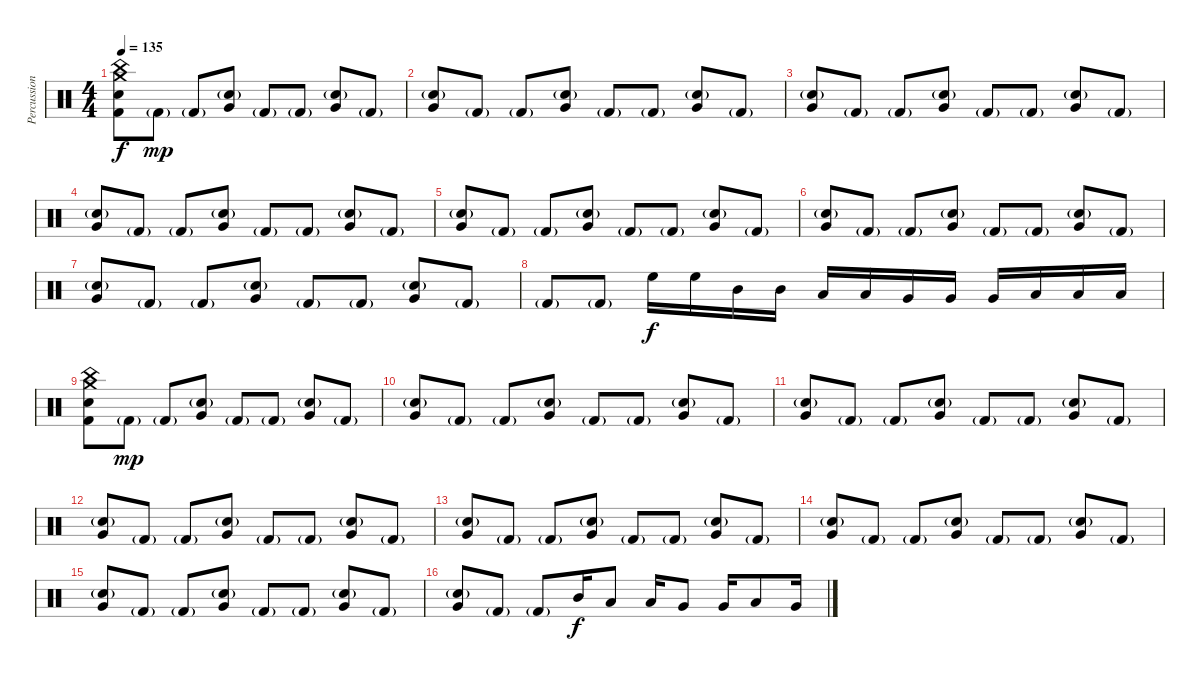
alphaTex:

\track ("Percussions" "Percussion") {instrument percussion}
\staff {score}
\articulation defaults
\ts (4 4)
\tempo 135
\clef neutral
\ks c
("China (hit)" "Crash medium (hit)" "Electric Snare (hit)" "Kick (hit) 2").8{dy f} "Kick (hit) 2"{g}.8{dy mp} "Kick (hit) 2"{g}.8 ("Snare (hit) 2"{g} "Very Low Tom (hit)").8 "Kick (hit) 2"{g}.8 "Kick (hit) 2"{g}.8 ("Snare (hit) 2"{g} "Very Low Tom (hit)").8 "Kick (hit) 2"{g}.8 |
("Snare (hit) 2"{g} "Very Low Tom (hit)").8 "Kick (hit) 2"{g}.8 "Kick (hit) 2"{g}.8 ("Snare (hit) 2"{g} "Very Low Tom (hit)").8 "Kick (hit) 2"{g}.8 "Kick (hit) 2"{g}.8 ("Snare (hit) 2"{g} "Very Low Tom (hit)").8 "Kick (hit) 2"{g}.8 |
("Snare (hit) 2"{g} "Very Low Tom (hit)").8 "Kick (hit) 2"{g}.8 "Kick (hit) 2"{g}.8 ("Snare (hit) 2"{g} "Very Low Tom (hit)").8 "Kick (hit) 2"{g}.8 "Kick (hit) 2"{g}.8 ("Snare (hit) 2"{g} "Very Low Tom (hit)").8 "Kick (hit) 2"{g}.8 |
("Snare (hit) 2"{g} "Very Low Tom (hit)").8 "Kick (hit) 2"{g}.8 "Kick (hit) 2"{g}.8 ("Snare (hit) 2"{g} "Very Low Tom (hit)").8 "Kick (hit) 2"{g}.8 "Kick (hit) 2"{g}.8 ("Snare (hit) 2"{g} "Very Low Tom (hit)").8 "Kick (hit) 2"{g}.8 |
("Snare (hit) 2"{g} "Very Low Tom (hit)").8 "Kick (hit) 2"{g}.8 "Kick (hit) 2"{g}.8 ("Snare (hit) 2"{g} "Very Low Tom (hit)").8 "Kick (hit) 2"{g}.8 "Kick (hit) 2"{g}.8 ("Snare (hit) 2"{g} "Very Low Tom (hit)").8 "Kick (hit) 2"{g}.8 |
("Snare (hit) 2"{g} "Very Low Tom (hit)").8 "Kick (hit) 2"{g}.8 "Kick (hit) 2"{g}.8 ("Snare (hit) 2"{g} "Very Low Tom (hit)").8 "Kick (hit) 2"{g}.8 "Kick (hit) 2"{g}.8 ("Snare (hit) 2"{g} "Very Low Tom (hit)").8 "Kick (hit) 2"{g}.8 |
("Snare (hit) 2"{g} "Very Low Tom (hit)").8 "Kick (hit) 2"{g}.8 "Kick (hit) 2"{g}.8 ("Snare (hit) 2"{g} "Very Low Tom (hit)").8 "Kick (hit) 2"{g}.8 "Kick (hit) 2"{g}.8 ("Snare (hit) 2"{g} "Very Low Tom (hit)").8 "Kick (hit) 2"{g}.8 |
"Kick (hit) 2"{g}.8 "Kick (hit) 2"{g}.8 "High Floor Tom (hit)".16{dy f} "High Floor Tom (hit)".16 "Mid Tom (hit)".16 "Mid Tom (hit)".16 "Low Tom (hit)".16 "Low Tom (hit)".16 "Very Low Tom (hit)".16 "Very Low Tom (hit)".16 "Very Low Tom (hit)".16 "Low Floor Tom (hit)".16 "Low Floor Tom (hit)".16 "Low Floor Tom (hit)".16 |
("China (hit)" "Crash medium (hit)" "Electric Snare (hit)" "Kick (hit) 2").8 "Kick (hit) 2"{g}.8{dy mp} "Kick (hit) 2"{g}.8 ("Snare (hit) 2"{g} "Very Low Tom (hit)").8 "Kick (hit) 2"{g}.8 "Kick (hit) 2"{g}.8 ("Snare (hit) 2"{g} "Very Low Tom (hit)").8 "Kick (hit) 2"{g}.8 |
("Snare (hit) 2"{g} "Very Low Tom (hit)").8 "Kick (hit) 2"{g}.8 "Kick (hit) 2"{g}.8 ("Snare (hit) 2"{g} "Very Low Tom (hit)").8 "Kick (hit) 2"{g}.8 "Kick (hit) 2"{g}.8 ("Snare (hit) 2"{g} "Very Low Tom (hit)").8 "Kick (hit) 2"{g}.8 |
("Snare (hit) 2"{g} "Very Low Tom (hit)").8 "Kick (hit) 2"{g}.8 "Kick (hit) 2"{g}.8 ("Snare (hit) 2"{g} "Very Low Tom (hit)").8 "Kick (hit) 2"{g}.8 "Kick (hit) 2"{g}.8 ("Snare (hit) 2"{g} "Very Low Tom (hit)").8 "Kick (hit) 2"{g}.8 |
("Snare (hit) 2"{g} "Very Low Tom (hit)").8 "Kick (hit) 2"{g}.8 "Kick (hit) 2"{g}.8 ("Snare (hit) 2"{g} "Very Low Tom (hit)").8 "Kick (hit) 2"{g}.8 "Kick (hit) 2"{g}.8 ("Snare (hit) 2"{g} "Very Low Tom (hit)").8 "Kick (hit) 2"{g}.8 |
("Snare (hit) 2"{g} "Very Low Tom (hit)").8 "Kick (hit) 2"{g}.8 "Kick (hit) 2"{g}.8 ("Snare (hit) 2"{g} "Very Low Tom (hit)").8 "Kick (hit) 2"{g}.8 "Kick (hit) 2"{g}.8 ("Snare (hit) 2"{g} "Very Low Tom (hit)").8 "Kick (hit) 2"{g}.8 |
("Snare (hit) 2"{g} "Very Low Tom (hit)").8 "Kick (hit) 2"{g}.8 "Kick (hit) 2"{g}.8 ("Snare (hit) 2"{g} "Very Low Tom (hit)").8 "Kick (hit) 2"{g}.8 "Kick (hit) 2"{g}.8 ("Snare (hit) 2"{g} "Very Low Tom (hit)").8 "Kick (hit) 2"{g}.8 |
("Snare (hit) 2"{g} "Very Low Tom (hit)").8 "Kick (hit) 2"{g}.8 "Kick (hit) 2"{g}.8 ("Snare (hit) 2"{g} "Very Low Tom (hit)").8 "Kick (hit) 2"{g}.8 "Kick (hit) 2"{g}.8 ("Snare (hit) 2"{g} "Very Low Tom (hit)").8 "Kick (hit) 2"{g}.8 |
("Snare (hit) 2"{g} "Very Low Tom (hit)").8 "Kick (hit) 2"{g}.8 "Kick (hit) 2"{g}.8 "Mid Tom (hit)".16{dy f} "Low Tom (hit)".8 "Low Tom (hit)".16 "Very Low Tom (hit)".8 "Very Low Tom (hit)".16 "Low Floor Tom (hit)".8 "Very Low Tom (hit)".16
